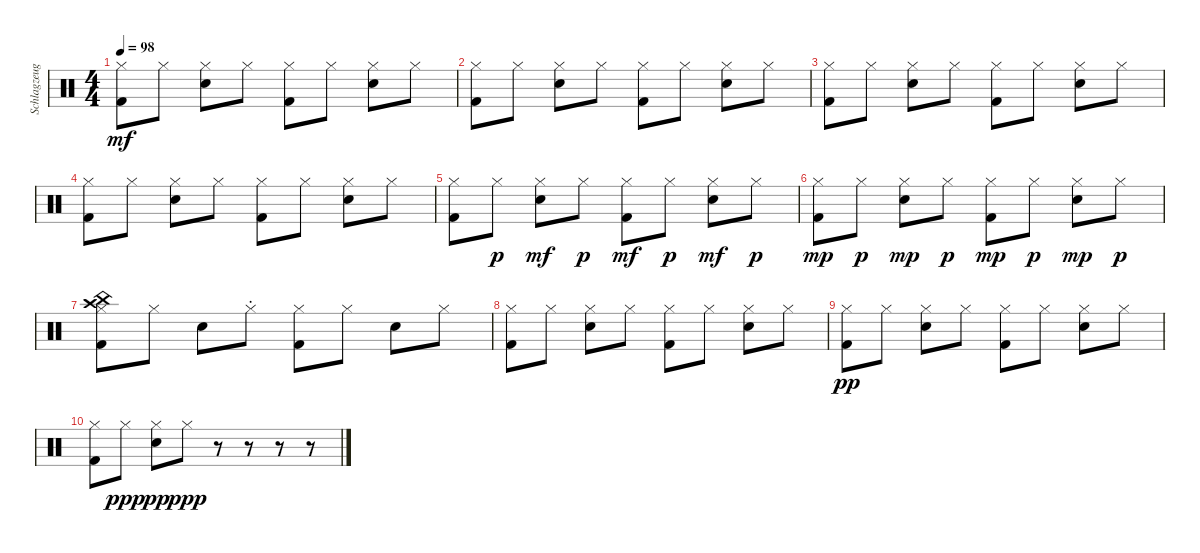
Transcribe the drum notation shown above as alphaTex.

\track ("Schlagzeug" "Schlagzeug") {instrument percussion}
\staff {score}
\articulation defaults
\ts (4 4)
\tempo 98
\clef neutral
\ks c
("Hi-Hat (closed)" "Kick (hit) 2").8{dy mf} "Hi-Hat (closed)".8 ("Hi-Hat (closed)" "Electric Snare (hit)").8 "Hi-Hat (closed)".8 ("Hi-Hat (closed)" "Kick (hit) 2").8 "Hi-Hat (closed)".8 ("Hi-Hat (closed)" "Electric Snare (hit)").8 "Hi-Hat (closed)".8 |
("Hi-Hat (closed)" "Kick (hit) 2").8 "Hi-Hat (closed)".8 ("Hi-Hat (closed)" "Electric Snare (hit)").8 "Hi-Hat (closed)".8 ("Hi-Hat (closed)" "Kick (hit) 2").8 "Hi-Hat (closed)".8 ("Hi-Hat (closed)" "Electric Snare (hit)").8 "Hi-Hat (closed)".8 |
("Hi-Hat (closed)" "Kick (hit) 2").8 "Hi-Hat (closed)".8 ("Hi-Hat (closed)" "Electric Snare (hit)").8 "Hi-Hat (closed)".8 ("Hi-Hat (closed)" "Kick (hit) 2").8 "Hi-Hat (closed)".8 ("Hi-Hat (closed)" "Electric Snare (hit)").8 "Hi-Hat (closed)".8 |
("Hi-Hat (closed)" "Kick (hit) 2").8 "Hi-Hat (closed)".8 ("Hi-Hat (closed)" "Electric Snare (hit)").8 "Hi-Hat (closed)".8 ("Hi-Hat (closed)" "Kick (hit) 2").8 "Hi-Hat (closed)".8 ("Hi-Hat (closed)" "Electric Snare (hit)").8 "Hi-Hat (closed)".8 |
("Hi-Hat (closed)" "Kick (hit) 2").8 "Hi-Hat (closed)".8{dy p} ("Hi-Hat (closed)" "Electric Snare (hit)").8{dy mf} "Hi-Hat (closed)".8{dy p} ("Hi-Hat (closed)" "Kick (hit) 2").8{dy mf} "Hi-Hat (closed)".8{dy p} ("Hi-Hat (closed)" "Electric Snare (hit)").8{dy mf} "Hi-Hat (closed)".8{dy p} |
("Hi-Hat (closed)" "Kick (hit) 2").8{dy mp} "Hi-Hat (closed)".8{dy p} ("Hi-Hat (closed)" "Electric Snare (hit)").8{dy mp} "Hi-Hat (closed)".8{dy p} ("Hi-Hat (closed)" "Kick (hit) 2").8{dy mp} "Hi-Hat (closed)".8{dy p} ("Hi-Hat (closed)" "Electric Snare (hit)").8{dy mp} "Hi-Hat (closed)".8{dy p} |
("China (hit)" "Hi-Hat (closed)" "Crash high (hit)" "Kick (hit) 2").8 "Hi-Hat (closed)".8 "Electric Snare (hit)".8 "Hi-Hat (closed)"{st}.8 ("Hi-Hat (closed)" "Kick (hit) 2").8 "Hi-Hat (closed)".8 "Electric Snare (hit)".8 "Hi-Hat (closed)".8 |
("Hi-Hat (closed)" "Kick (hit) 2").8 "Hi-Hat (closed)".8 ("Hi-Hat (closed)" "Electric Snare (hit)").8 "Hi-Hat (closed)".8 ("Hi-Hat (closed)" "Kick (hit) 2").8 "Hi-Hat (closed)".8 ("Hi-Hat (closed)" "Electric Snare (hit)").8 "Hi-Hat (closed)".8 |
("Hi-Hat (closed)" "Kick (hit) 2").8{dy pp} "Hi-Hat (closed)".8 ("Hi-Hat (closed)" "Electric Snare (hit)").8 "Hi-Hat (closed)".8 ("Hi-Hat (closed)" "Kick (hit) 2").8 "Hi-Hat (closed)".8 ("Hi-Hat (closed)" "Electric Snare (hit)").8 "Hi-Hat (closed)".8 |
("Hi-Hat (closed)" "Kick (hit) 2").8 "Hi-Hat (closed)".8{dy ppp} ("Hi-Hat (closed)" "Electric Snare (hit)").8{dy pp} "Hi-Hat (closed)".8{dy ppp} r.8 r.8 r.8 r.8
